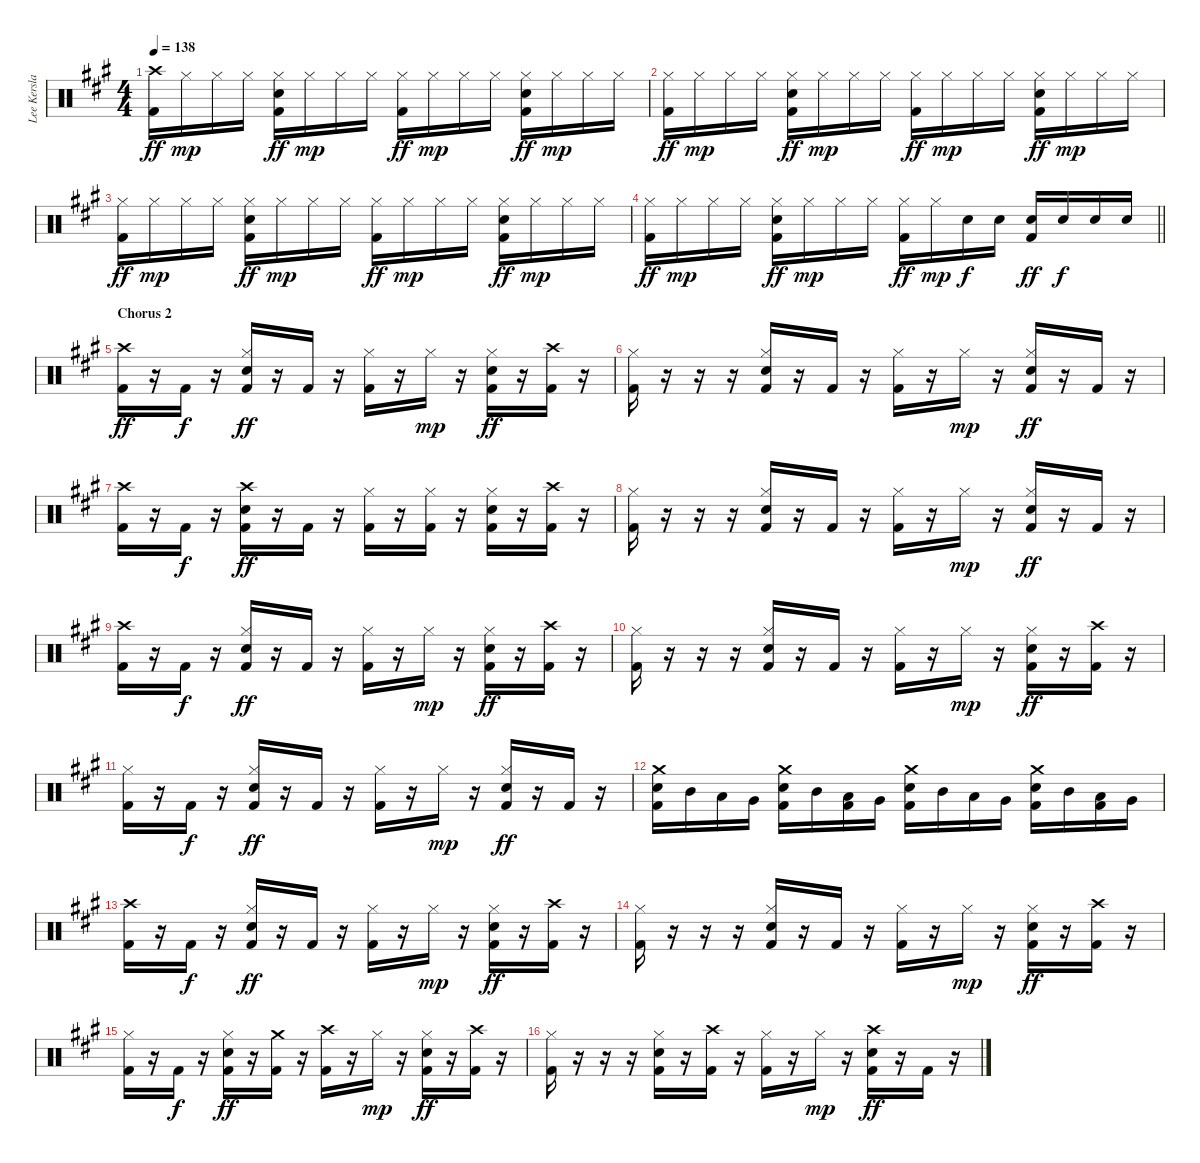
\track ("Lee Kerslake" "Lee Kersla") {instrument percussion}
\staff {score}
\articulation defaults
\ts (4 4)
\tempo 138
\clef neutral
\ks a
("Crash high (hit)" "Kick (hit) 2").16{dy ff} "Hi-Hat (closed)".16{dy mp} "Hi-Hat (closed)".16 "Hi-Hat (closed)".16 ("Hi-Hat (closed)" "Snare (hit) 2" "Kick (hit) 2").16{dy ff} "Hi-Hat (closed)".16{dy mp} "Hi-Hat (closed)".16 "Hi-Hat (closed)".16 ("Hi-Hat (closed)" "Kick (hit) 2").16{dy ff} "Hi-Hat (closed)".16{dy mp} "Hi-Hat (closed)".16 "Hi-Hat (closed)".16 ("Hi-Hat (closed)" "Snare (hit) 2" "Kick (hit) 2").16{dy ff} "Hi-Hat (closed)".16{dy mp} "Hi-Hat (closed)".16 "Hi-Hat (closed)".16 |
("Hi-Hat (closed)" "Kick (hit) 2").16{dy ff} "Hi-Hat (closed)".16{dy mp} "Hi-Hat (closed)".16 "Hi-Hat (closed)".16 ("Hi-Hat (closed)" "Snare (hit) 2" "Kick (hit) 2").16{dy ff} "Hi-Hat (closed)".16{dy mp} "Hi-Hat (closed)".16 "Hi-Hat (closed)".16 ("Hi-Hat (closed)" "Kick (hit) 2").16{dy ff} "Hi-Hat (closed)".16{dy mp} "Hi-Hat (closed)".16 "Hi-Hat (closed)".16 ("Hi-Hat (closed)" "Snare (hit) 2" "Kick (hit) 2").16{dy ff} "Hi-Hat (closed)".16{dy mp} "Hi-Hat (closed)".16 "Hi-Hat (closed)".16 |
("Hi-Hat (closed)" "Kick (hit) 2").16{dy ff} "Hi-Hat (closed)".16{dy mp} "Hi-Hat (closed)".16 "Hi-Hat (closed)".16 ("Hi-Hat (closed)" "Snare (hit) 2" "Kick (hit) 2").16{dy ff} "Hi-Hat (closed)".16{dy mp} "Hi-Hat (closed)".16 "Hi-Hat (closed)".16 ("Hi-Hat (closed)" "Kick (hit) 2").16{dy ff} "Hi-Hat (closed)".16{dy mp} "Hi-Hat (closed)".16 "Hi-Hat (closed)".16 ("Hi-Hat (closed)" "Snare (hit) 2" "Kick (hit) 2").16{dy ff} "Hi-Hat (closed)".16{dy mp} "Hi-Hat (closed)".16 "Hi-Hat (closed)".16 |
\barLineRight lightlight
("Hi-Hat (closed)" "Kick (hit) 2").16{dy ff} "Hi-Hat (closed)".16{dy mp} "Hi-Hat (closed)".16 "Hi-Hat (closed)".16 ("Hi-Hat (closed)" "Snare (hit) 2" "Kick (hit) 2").16{dy ff} "Hi-Hat (closed)".16{dy mp} "Hi-Hat (closed)".16 "Hi-Hat (closed)".16 ("Hi-Hat (closed)" "Kick (hit) 2").16{dy ff} "Hi-Hat (closed)".16{dy mp} "Snare (hit) 2".16{dy f} "Snare (hit) 2".16 ("Snare (hit) 2" "Kick (hit) 2").16{dy ff} "Snare (hit) 2".16{dy f} "Snare (hit) 2".16 "Snare (hit) 2".16 |
\section ("" "Chorus 2")
("Crash high (hit)" "Kick (hit) 2").16{dy ff} r.16 "Kick (hit) 2".16{dy f} r.16 ("Hi-Hat (closed)" "Snare (hit) 2" "Kick (hit) 2").16{dy ff} r.16 "Kick (hit) 2".16 r.16 ("Hi-Hat (closed)" "Kick (hit) 2").16 r.16 "Hi-Hat (closed)".16{dy mp} r.16 ("Hi-Hat (closed)" "Snare (hit) 2" "Kick (hit) 2").16{dy ff} r.16 ("Crash high (hit)" "Kick (hit) 2").16 r.16 |
("Hi-Hat (closed)" "Kick (hit) 2").16 r.16 r.16 r.16 ("Hi-Hat (closed)" "Snare (hit) 2" "Kick (hit) 2").16 r.16 "Kick (hit) 2".16 r.16 ("Hi-Hat (closed)" "Kick (hit) 2").16 r.16 "Hi-Hat (closed)".16{dy mp} r.16 ("Hi-Hat (closed)" "Snare (hit) 2" "Kick (hit) 2").16{dy ff} r.16 "Kick (hit) 2".16 r.16 |
("Crash high (hit)" "Kick (hit) 2").16 r.16 "Kick (hit) 2".16{dy f} r.16 ("Crash high (hit)" "Snare (hit) 2" "Kick (hit) 2").16{dy ff} r.16 "Kick (hit) 2".16 r.16 ("Hi-Hat (closed)" "Kick (hit) 2").16 r.16 ("Hi-Hat (closed)" "Kick (hit) 2").16 r.16 ("Hi-Hat (closed)" "Snare (hit) 2" "Kick (hit) 2").16 r.16 ("Crash high (hit)" "Kick (hit) 2").16 r.16 |
("Hi-Hat (closed)" "Kick (hit) 2").16 r.16 r.16 r.16 ("Hi-Hat (closed)" "Snare (hit) 2" "Kick (hit) 2").16 r.16 "Kick (hit) 2".16 r.16 ("Hi-Hat (closed)" "Kick (hit) 2").16 r.16 "Hi-Hat (closed)".16{dy mp} r.16 ("Hi-Hat (closed)" "Snare (hit) 2" "Kick (hit) 2").16{dy ff} r.16 "Kick (hit) 2".16 r.16 |
("Crash high (hit)" "Kick (hit) 2").16 r.16 "Kick (hit) 2".16{dy f} r.16 ("Hi-Hat (closed)" "Snare (hit) 2" "Kick (hit) 2").16{dy ff} r.16 "Kick (hit) 2".16 r.16 ("Hi-Hat (closed)" "Kick (hit) 2").16 r.16 "Hi-Hat (closed)".16{dy mp} r.16 ("Hi-Hat (closed)" "Snare (hit) 2" "Kick (hit) 2").16{dy ff} r.16 ("Crash high (hit)" "Kick (hit) 2").16 r.16 |
("Hi-Hat (closed)" "Kick (hit) 2").16 r.16 r.16 r.16 ("Hi-Hat (closed)" "Snare (hit) 2" "Kick (hit) 2").16 r.16 "Kick (hit) 2".16 r.16 ("Hi-Hat (closed)" "Kick (hit) 2").16 r.16 "Hi-Hat (closed)".16{dy mp} r.16 ("Hi-Hat (closed)" "Snare (hit) 2" "Kick (hit) 2").16{dy ff} r.16 ("Crash high (hit)" "Kick (hit) 2").16 r.16 |
("Hi-Hat (closed)" "Kick (hit) 2").16 r.16 "Kick (hit) 2".16{dy f} r.16 ("Hi-Hat (closed)" "Snare (hit) 2" "Kick (hit) 2").16{dy ff} r.16 "Kick (hit) 2".16 r.16 ("Hi-Hat (closed)" "Kick (hit) 2").16 r.16 "Hi-Hat (closed)".16{dy mp} r.16 ("Hi-Hat (closed)" "Snare (hit) 2" "Kick (hit) 2").16{dy ff} r.16 "Kick (hit) 2".16 r.16 |
("Crash medium (hit)" "Snare (hit) 2" "Kick (hit) 2").16 "Mid Tom (hit)".16 "Low Tom (hit)".16 "Very Low Tom (hit)".16 ("Crash medium (hit)" "Snare (hit) 2" "Kick (hit) 2").16 "Mid Tom (hit)".16 ("Low Tom (hit)" "Kick (hit) 2").16 "Very Low Tom (hit)".16 ("Crash medium (hit)" "Snare (hit) 2" "Kick (hit) 2").16 "Mid Tom (hit)".16 "Low Tom (hit)".16 "Very Low Tom (hit)".16 ("Crash medium (hit)" "Snare (hit) 2" "Kick (hit) 2").16 "Mid Tom (hit)".16 ("Low Tom (hit)" "Kick (hit) 2").16 "Very Low Tom (hit)".16 |
("Crash high (hit)" "Kick (hit) 2").16 r.16 "Kick (hit) 2".16{dy f} r.16 ("Hi-Hat (closed)" "Snare (hit) 2" "Kick (hit) 2").16{dy ff} r.16 "Kick (hit) 2".16 r.16 ("Hi-Hat (closed)" "Kick (hit) 2").16 r.16 "Hi-Hat (closed)".16{dy mp} r.16 ("Hi-Hat (closed)" "Snare (hit) 2" "Kick (hit) 2").16{dy ff} r.16 ("Crash high (hit)" "Kick (hit) 2").16 r.16 |
("Hi-Hat (closed)" "Kick (hit) 2").16 r.16 r.16 r.16 ("Hi-Hat (closed)" "Snare (hit) 2" "Kick (hit) 2").16 r.16 "Kick (hit) 2".16 r.16 ("Hi-Hat (closed)" "Kick (hit) 2").16 r.16 "Hi-Hat (closed)".16{dy mp} r.16 ("Hi-Hat (closed)" "Snare (hit) 2" "Kick (hit) 2").16{dy ff} r.16 ("Crash high (hit)" "Kick (hit) 2").16 r.16 |
("Hi-Hat (closed)" "Kick (hit) 2").16 r.16 "Kick (hit) 2".16{dy f} r.16 ("Hi-Hat (closed)" "Snare (hit) 2" "Kick (hit) 2").16{dy ff} r.16 ("Crash medium (hit)" "Kick (hit) 2").16 r.16 ("Crash high (hit)" "Kick (hit) 2").16 r.16 "Hi-Hat (closed)".16{dy mp} r.16 ("Hi-Hat (closed)" "Snare (hit) 2" "Kick (hit) 2").16{dy ff} r.16 ("Crash high (hit)" "Kick (hit) 2").16 r.16 |
("Hi-Hat (closed)" "Kick (hit) 2").16 r.16 r.16 r.16 ("Hi-Hat (closed)" "Snare (hit) 2" "Kick (hit) 2").16 r.16 ("Crash high (hit)" "Kick (hit) 2").16 r.16 ("Hi-Hat (closed)" "Kick (hit) 2").16 r.16 "Hi-Hat (closed)".16{dy mp} r.16 ("Crash high (hit)" "Snare (hit) 2" "Kick (hit) 2").16{dy ff} r.16 "Kick (hit) 2".16 r.16
